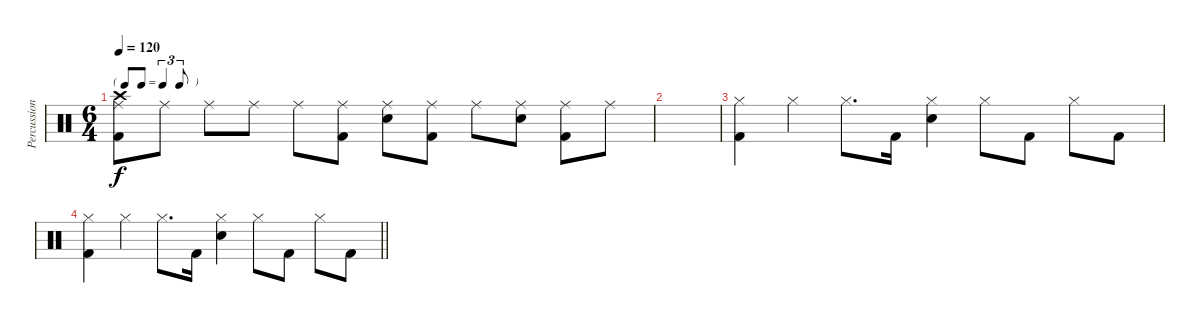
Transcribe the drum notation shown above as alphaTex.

\track ("Percussion" "Percussion") {instrument percussion}
\staff {score}
\articulation defaults
\ts (6 4)
\tf triplet8th
\tempo 120
\clef neutral
\ks c
("Ride (middle)" "Crash high (hit)" "Kick (hit) 2").8{dy f} "Ride (middle)".8 "Ride (middle)".8 "Ride (middle)".8 "Ride (middle)".8 ("Ride (middle)" "Kick (hit) 2").8 ("Ride (middle)" "Snare (hit) 2").8 ("Ride (middle)" "Kick (hit) 2").8 "Ride (middle)".8 ("Ride (middle)" "Snare (hit) 2").8 ("Ride (middle)" "Kick (hit) 2").8 "Ride (middle)".8 |
|
("Hi-Hat (closed)" "Kick (hit) 2").4 "Hi-Hat (closed)".4 "Hi-Hat (closed)".8{d} "Kick (hit) 2".16 ("Hi-Hat (closed)" "Snare (hit) 2").4 "Hi-Hat (closed)".8 "Kick (hit) 2".8 "Hi-Hat (closed)".8 "Kick (hit) 2".8 |
\barLineRight lightlight
("Hi-Hat (closed)" "Kick (hit) 2").4 "Hi-Hat (closed)".4 "Hi-Hat (closed)".8{d} "Kick (hit) 2".16 ("Hi-Hat (closed)" "Snare (hit) 2").4 "Hi-Hat (closed)".8 "Kick (hit) 2".8 "Hi-Hat (closed)".8 "Kick (hit) 2".8
